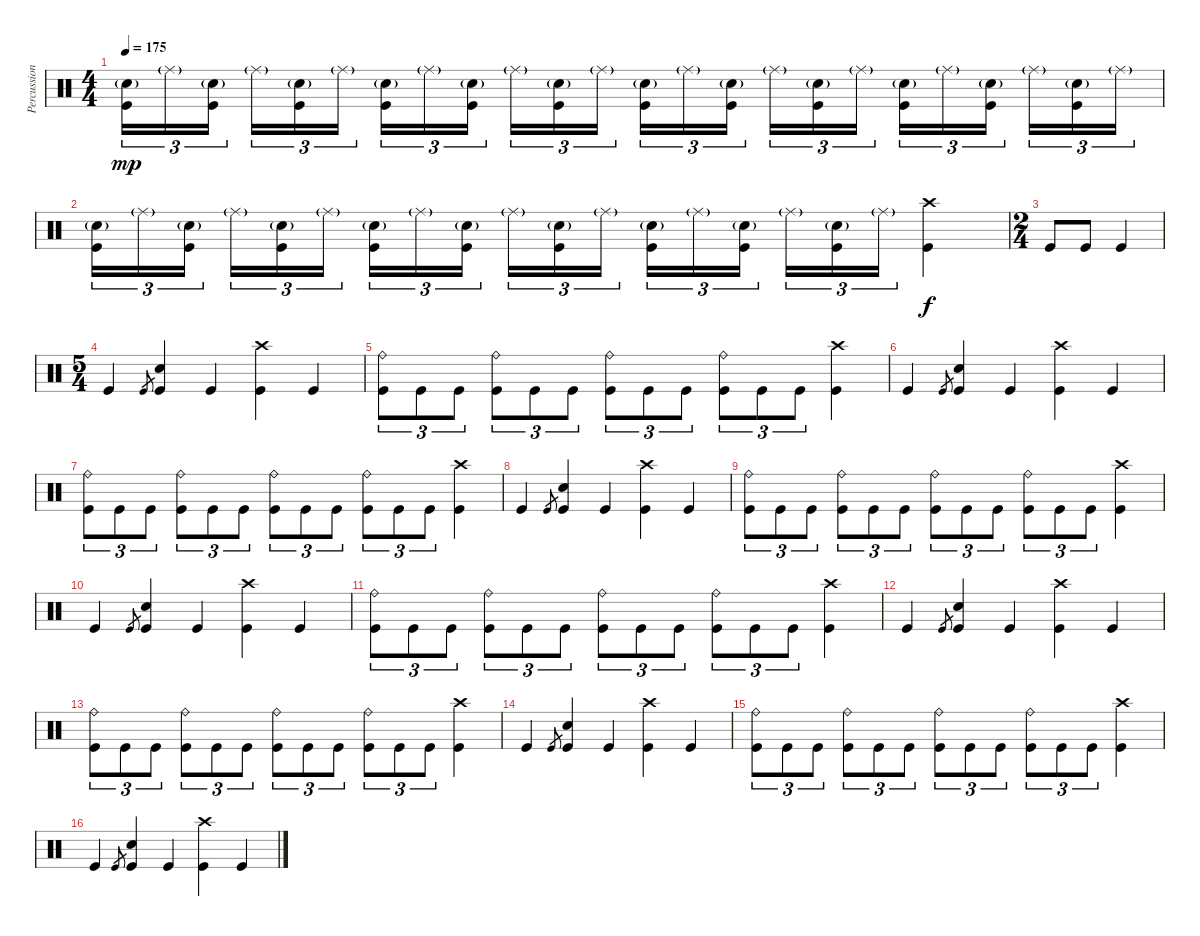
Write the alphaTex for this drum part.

\track ("Percussion" "Percussion") {instrument percussion}
\staff {score}
\articulation defaults
\ts (4 4)
\tempo 175
\clef neutral
\ks c
("Electric Snare (hit)"{g} "Kick (hit)").16{tu (3 2) dy mp} "Ride (middle)"{g}.16{tu (3 2)} ("Electric Snare (hit)"{g} "Kick (hit)").16{tu (3 2) beam splitsecondary} "Ride (middle)"{g}.16{tu (3 2)} ("Electric Snare (hit)"{g} "Kick (hit)").16{tu (3 2)} "Ride (middle)"{g}.16{tu (3 2)} ("Electric Snare (hit)"{g} "Kick (hit)").16{tu (3 2)} "Ride (middle)"{g}.16{tu (3 2)} ("Electric Snare (hit)"{g} "Kick (hit)").16{tu (3 2) beam splitsecondary} "Ride (middle)"{g}.16{tu (3 2)} ("Electric Snare (hit)"{g} "Kick (hit)").16{tu (3 2)} "Ride (middle)"{g}.16{tu (3 2)} ("Electric Snare (hit)"{g} "Kick (hit)").16{tu (3 2)} "Ride (middle)"{g}.16{tu (3 2)} ("Electric Snare (hit)"{g} "Kick (hit)").16{tu (3 2) beam splitsecondary} "Ride (middle)"{g}.16{tu (3 2)} ("Electric Snare (hit)"{g} "Kick (hit)").16{tu (3 2)} "Ride (middle)"{g}.16{tu (3 2)} ("Electric Snare (hit)"{g} "Kick (hit)").16{tu (3 2)} "Ride (middle)"{g}.16{tu (3 2)} ("Electric Snare (hit)"{g} "Kick (hit)").16{tu (3 2) beam splitsecondary} "Ride (middle)"{g}.16{tu (3 2)} ("Electric Snare (hit)"{g} "Kick (hit)").16{tu (3 2)} "Ride (middle)"{g}.16{tu (3 2)} |
("Electric Snare (hit)"{g} "Kick (hit)").16{tu (3 2)} "Ride (middle)"{g}.16{tu (3 2)} ("Electric Snare (hit)"{g} "Kick (hit)").16{tu (3 2) beam splitsecondary} "Ride (middle)"{g}.16{tu (3 2)} ("Electric Snare (hit)"{g} "Kick (hit)").16{tu (3 2)} "Ride (middle)"{g}.16{tu (3 2)} ("Electric Snare (hit)"{g} "Kick (hit)").16{tu (3 2)} "Ride (middle)"{g}.16{tu (3 2)} ("Electric Snare (hit)"{g} "Kick (hit)").16{tu (3 2) beam splitsecondary} "Ride (middle)"{g}.16{tu (3 2)} ("Electric Snare (hit)"{g} "Kick (hit)").16{tu (3 2)} "Ride (middle)"{g}.16{tu (3 2)} ("Electric Snare (hit)"{g} "Kick (hit)").16{tu (3 2)} "Ride (middle)"{g}.16{tu (3 2)} ("Electric Snare (hit)"{g} "Kick (hit)").16{tu (3 2) beam splitsecondary} "Ride (middle)"{g}.16{tu (3 2)} ("Electric Snare (hit)"{g} "Kick (hit)").16{tu (3 2)} "Ride (middle)"{g}.16{tu (3 2)} ("Crash high (hit)" "Kick (hit)").4{dy f} |
\ts (2 4)
"Kick (hit)".8 "Kick (hit)".8 "Kick (hit)".4 |
\ts (5 4)
"Kick (hit)".4 "Kick (hit)".8{gr} ("Electric Snare (hit)" "Kick (hit)").4 "Kick (hit)".4 ("Crash high (hit)" "Kick (hit)").4 "Kick (hit)".4 |
("Ride (bell)" "Kick (hit)").8{tu (3 2)} "Kick (hit)".8{tu (3 2)} "Kick (hit)".8{tu (3 2)} ("Ride (bell)" "Kick (hit)").8{tu (3 2)} "Kick (hit)".8{tu (3 2)} "Kick (hit)".8{tu (3 2)} ("Ride (bell)" "Kick (hit)").8{tu (3 2)} "Kick (hit)".8{tu (3 2)} "Kick (hit)".8{tu (3 2)} ("Ride (bell)" "Kick (hit)").8{tu (3 2)} "Kick (hit)".8{tu (3 2)} "Kick (hit)".8{tu (3 2)} ("Crash high (hit)" "Kick (hit)").4 |
"Kick (hit)".4 "Kick (hit)".8{gr} ("Electric Snare (hit)" "Kick (hit)").4 "Kick (hit)".4 ("Crash high (hit)" "Kick (hit)").4 "Kick (hit)".4 |
("Ride (bell)" "Kick (hit)").8{tu (3 2)} "Kick (hit)".8{tu (3 2)} "Kick (hit)".8{tu (3 2)} ("Ride (bell)" "Kick (hit)").8{tu (3 2)} "Kick (hit)".8{tu (3 2)} "Kick (hit)".8{tu (3 2)} ("Ride (bell)" "Kick (hit)").8{tu (3 2)} "Kick (hit)".8{tu (3 2)} "Kick (hit)".8{tu (3 2)} ("Ride (bell)" "Kick (hit)").8{tu (3 2)} "Kick (hit)".8{tu (3 2)} "Kick (hit)".8{tu (3 2)} ("Crash high (hit)" "Kick (hit)").4 |
"Kick (hit)".4 "Kick (hit)".8{gr} ("Electric Snare (hit)" "Kick (hit)").4 "Kick (hit)".4 ("Crash high (hit)" "Kick (hit)").4 "Kick (hit)".4 |
("Ride (bell)" "Kick (hit)").8{tu (3 2)} "Kick (hit)".8{tu (3 2)} "Kick (hit)".8{tu (3 2)} ("Ride (bell)" "Kick (hit)").8{tu (3 2)} "Kick (hit)".8{tu (3 2)} "Kick (hit)".8{tu (3 2)} ("Ride (bell)" "Kick (hit)").8{tu (3 2)} "Kick (hit)".8{tu (3 2)} "Kick (hit)".8{tu (3 2)} ("Ride (bell)" "Kick (hit)").8{tu (3 2)} "Kick (hit)".8{tu (3 2)} "Kick (hit)".8{tu (3 2)} ("Crash high (hit)" "Kick (hit)").4 |
"Kick (hit)".4 "Kick (hit)".8{gr} ("Electric Snare (hit)" "Kick (hit)").4 "Kick (hit)".4 ("Crash high (hit)" "Kick (hit)").4 "Kick (hit)".4 |
("Ride (bell)" "Kick (hit)").8{tu (3 2)} "Kick (hit)".8{tu (3 2)} "Kick (hit)".8{tu (3 2)} ("Ride (bell)" "Kick (hit)").8{tu (3 2)} "Kick (hit)".8{tu (3 2)} "Kick (hit)".8{tu (3 2)} ("Ride (bell)" "Kick (hit)").8{tu (3 2)} "Kick (hit)".8{tu (3 2)} "Kick (hit)".8{tu (3 2)} ("Ride (bell)" "Kick (hit)").8{tu (3 2)} "Kick (hit)".8{tu (3 2)} "Kick (hit)".8{tu (3 2)} ("Crash high (hit)" "Kick (hit)").4 |
"Kick (hit)".4 "Kick (hit)".8{gr} ("Electric Snare (hit)" "Kick (hit)").4 "Kick (hit)".4 ("Crash high (hit)" "Kick (hit)").4 "Kick (hit)".4 |
("Ride (bell)" "Kick (hit)").8{tu (3 2)} "Kick (hit)".8{tu (3 2)} "Kick (hit)".8{tu (3 2)} ("Ride (bell)" "Kick (hit)").8{tu (3 2)} "Kick (hit)".8{tu (3 2)} "Kick (hit)".8{tu (3 2)} ("Ride (bell)" "Kick (hit)").8{tu (3 2)} "Kick (hit)".8{tu (3 2)} "Kick (hit)".8{tu (3 2)} ("Ride (bell)" "Kick (hit)").8{tu (3 2)} "Kick (hit)".8{tu (3 2)} "Kick (hit)".8{tu (3 2)} ("Crash high (hit)" "Kick (hit)").4 |
"Kick (hit)".4 "Kick (hit)".8{gr} ("Electric Snare (hit)" "Kick (hit)").4 "Kick (hit)".4 ("Crash high (hit)" "Kick (hit)").4 "Kick (hit)".4 |
("Ride (bell)" "Kick (hit)").8{tu (3 2)} "Kick (hit)".8{tu (3 2)} "Kick (hit)".8{tu (3 2)} ("Ride (bell)" "Kick (hit)").8{tu (3 2)} "Kick (hit)".8{tu (3 2)} "Kick (hit)".8{tu (3 2)} ("Ride (bell)" "Kick (hit)").8{tu (3 2)} "Kick (hit)".8{tu (3 2)} "Kick (hit)".8{tu (3 2)} ("Ride (bell)" "Kick (hit)").8{tu (3 2)} "Kick (hit)".8{tu (3 2)} "Kick (hit)".8{tu (3 2)} ("Crash high (hit)" "Kick (hit)").4 |
"Kick (hit)".4 "Kick (hit)".8{gr} ("Electric Snare (hit)" "Kick (hit)").4 "Kick (hit)".4 ("Crash high (hit)" "Kick (hit)").4 "Kick (hit)".4
